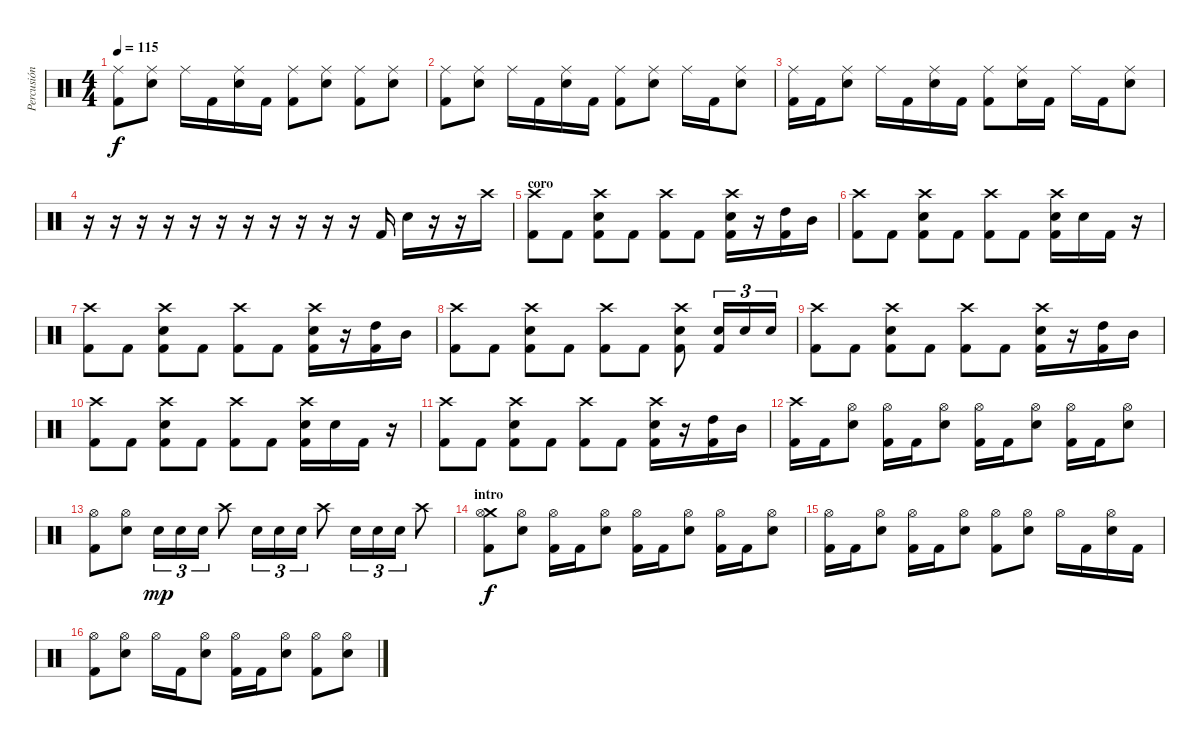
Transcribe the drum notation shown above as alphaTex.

\track ("Percusión" "Percusión") {instrument percussion}
\staff {score}
\articulation defaults
\ts (4 4)
\tempo 115
\clef neutral
\ks c
("Ride (middle)" "Kick (hit) 2").8{dy f} ("Ride (middle)" "Electric Snare (hit)").8 "Ride (middle)".16 "Kick (hit) 2".16 ("Ride (middle)" "Electric Snare (hit)").16 "Kick (hit) 2".16 ("Ride (middle)" "Kick (hit) 2").8 ("Ride (middle)" "Electric Snare (hit)").8 ("Ride (middle)" "Kick (hit) 2").8 ("Ride (middle)" "Electric Snare (hit)").8 |
("Ride (middle)" "Kick (hit) 2").8 ("Ride (middle)" "Electric Snare (hit)").8 "Ride (middle)".16 "Kick (hit) 2".16 ("Ride (middle)" "Electric Snare (hit)").16 "Kick (hit) 2".16 ("Ride (middle)" "Kick (hit) 2").8 ("Ride (middle)" "Electric Snare (hit)").8 "Ride (middle)".16 "Kick (hit) 2".16 ("Ride (middle)" "Electric Snare (hit)").8 |
("Ride (middle)" "Kick (hit) 2").16 "Kick (hit) 2".16 ("Ride (middle)" "Electric Snare (hit)").8 "Ride (middle)".16 "Kick (hit) 2".16 ("Ride (middle)" "Electric Snare (hit)").16 "Kick (hit) 2".16 ("Ride (middle)" "Kick (hit) 2").8 ("Ride (middle)" "Electric Snare (hit)").16 "Kick (hit) 2".16 "Ride (middle)".16 "Kick (hit) 2".16 ("Ride (middle)" "Electric Snare (hit)").8 |
r.16 r.16 r.16 r.16 r.16 r.16 r.16 r.16 r.16 r.16 r.16 "Kick (hit) 2".16 "Electric Snare (hit)".16 r.16 r.16 "Crash high (hit)".16 |
\section ("" "coro")
("Crash high (hit)" "Kick (hit) 2").8 "Kick (hit) 2".8 ("Crash high (hit)" "Electric Snare (hit)" "Kick (hit) 2").8 "Kick (hit) 2".8 ("Crash high (hit)" "Kick (hit) 2").8 "Kick (hit) 2".8 ("Crash high (hit)" "Electric Snare (hit)" "Kick (hit) 2").16 r.16 ("High Tom (hit)" "Kick (hit) 2").16 "Mid Tom (hit)".16 |
("Crash high (hit)" "Kick (hit) 2").8 "Kick (hit) 2".8 ("Crash high (hit)" "Electric Snare (hit)" "Kick (hit) 2").8 "Kick (hit) 2".8 ("Crash high (hit)" "Kick (hit) 2").8 "Kick (hit) 2".8 ("Crash high (hit)" "Electric Snare (hit)" "Kick (hit) 2").16 "Electric Snare (hit)".16 "Kick (hit) 2".16 r.16 |
("Crash high (hit)" "Kick (hit) 2").8 "Kick (hit) 2".8 ("Crash high (hit)" "Electric Snare (hit)" "Kick (hit) 2").8 "Kick (hit) 2".8 ("Crash high (hit)" "Kick (hit) 2").8 "Kick (hit) 2".8 ("Crash high (hit)" "Electric Snare (hit)" "Kick (hit) 2").16 r.16 ("High Tom (hit)" "Kick (hit) 2").16 "Mid Tom (hit)".16 |
("Crash high (hit)" "Kick (hit) 2").8 "Kick (hit) 2".8 ("Crash high (hit)" "Electric Snare (hit)" "Kick (hit) 2").8 "Kick (hit) 2".8 ("Crash high (hit)" "Kick (hit) 2").8 "Kick (hit) 2".8 ("Crash high (hit)" "Electric Snare (hit)" "Kick (hit) 2").8 ("Electric Snare (hit)" "Kick (hit) 2").16{tu (3 2)} "Electric Snare (hit)".16{tu (3 2)} "Electric Snare (hit)".16{tu (3 2)} |
("Crash high (hit)" "Kick (hit) 2").8 "Kick (hit) 2".8 ("Crash high (hit)" "Electric Snare (hit)" "Kick (hit) 2").8 "Kick (hit) 2".8 ("Crash high (hit)" "Kick (hit) 2").8 "Kick (hit) 2".8 ("Crash high (hit)" "Electric Snare (hit)" "Kick (hit) 2").16 r.16 ("High Tom (hit)" "Kick (hit) 2").16 "Mid Tom (hit)".16 |
("Crash high (hit)" "Kick (hit) 2").8 "Kick (hit) 2".8 ("Crash high (hit)" "Electric Snare (hit)" "Kick (hit) 2").8 "Kick (hit) 2".8 ("Crash high (hit)" "Kick (hit) 2").8 "Kick (hit) 2".8 ("Crash high (hit)" "Electric Snare (hit)" "Kick (hit) 2").16 "Electric Snare (hit)".16 "Kick (hit) 2".16 r.16 |
("Crash high (hit)" "Kick (hit) 2").8 "Kick (hit) 2".8 ("Crash high (hit)" "Electric Snare (hit)" "Kick (hit) 2").8 "Kick (hit) 2".8 ("Crash high (hit)" "Kick (hit) 2").8 "Kick (hit) 2".8 ("Crash high (hit)" "Electric Snare (hit)" "Kick (hit) 2").16 r.16 ("High Tom (hit)" "Kick (hit) 2").16 "Mid Tom (hit)".16 |
("Crash high (hit)" "Kick (hit) 2").16 "Kick (hit) 2".16 ("Hi-Hat (open)" "Electric Snare (hit)").8 ("Hi-Hat (open)" "Kick (hit) 2").16 "Kick (hit) 2".16 ("Hi-Hat (open)" "Electric Snare (hit)").8 ("Hi-Hat (open)" "Kick (hit) 2").16 "Kick (hit) 2".16 ("Hi-Hat (open)" "Electric Snare (hit)").8 ("Hi-Hat (open)" "Kick (hit) 2").16 "Kick (hit) 2".16 ("Hi-Hat (open)" "Electric Snare (hit)").8 |
("Hi-Hat (open)" "Kick (hit) 2").8 ("Hi-Hat (open)" "Electric Snare (hit)").8 "Electric Snare (hit)".16{tu (3 2) dy mp} "Electric Snare (hit)".16{tu (3 2)} "Electric Snare (hit)".16{tu (3 2)} "Crash high (hit)".8 "Electric Snare (hit)".16{tu (3 2)} "Electric Snare (hit)".16{tu (3 2)} "Electric Snare (hit)".16{tu (3 2)} "Crash high (hit)".8 "Electric Snare (hit)".16{tu (3 2)} "Electric Snare (hit)".16{tu (3 2)} "Electric Snare (hit)".16{tu (3 2)} "Crash high (hit)".8 |
\section ("" "intro")
("Crash medium (hit)" "Hi-Hat (open)" "Kick (hit) 2").8{dy f} ("Hi-Hat (open)" "Electric Snare (hit)").8 ("Hi-Hat (open)" "Kick (hit) 2").16 "Kick (hit) 2".16 ("Hi-Hat (open)" "Electric Snare (hit)").8 ("Hi-Hat (open)" "Kick (hit) 2").16 "Kick (hit) 2".16 ("Hi-Hat (open)" "Electric Snare (hit)").8 ("Hi-Hat (open)" "Kick (hit) 2").16 "Kick (hit) 2".16 ("Hi-Hat (open)" "Electric Snare (hit)").8 |
("Hi-Hat (open)" "Kick (hit) 2").16 "Kick (hit) 2".16 ("Hi-Hat (open)" "Electric Snare (hit)").8 ("Hi-Hat (open)" "Kick (hit) 2").16 "Kick (hit) 2".16 ("Hi-Hat (open)" "Electric Snare (hit)").8 ("Hi-Hat (open)" "Kick (hit) 2").8 ("Hi-Hat (open)" "Electric Snare (hit)").8 "Hi-Hat (open)".16 "Kick (hit) 2".16 ("Hi-Hat (open)" "Electric Snare (hit)").16 "Kick (hit) 2".16 |
("Hi-Hat (open)" "Kick (hit) 2").8 ("Hi-Hat (open)" "Electric Snare (hit)").8 "Hi-Hat (open)".16 "Kick (hit) 2".16 ("Hi-Hat (open)" "Electric Snare (hit)").8 ("Hi-Hat (open)" "Kick (hit) 2").16 "Kick (hit) 2".16 ("Hi-Hat (open)" "Electric Snare (hit)").8 ("Hi-Hat (open)" "Kick (hit) 2").8 ("Hi-Hat (open)" "Electric Snare (hit)").8
